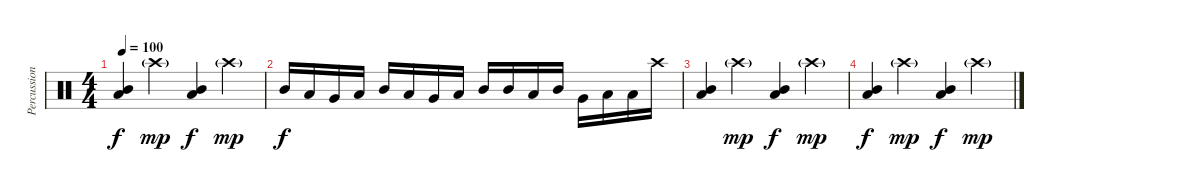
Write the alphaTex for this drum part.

\track ("Percussion" "Percussion") {instrument percussion}
\staff {score}
\articulation defaults
\ts (4 4)
\tempo 100
\clef neutral
\ks c
("Mid Tom (hit)" "Low Tom (hit)").4{dy f} "Crash high (hit)"{g}.4{dy mp} ("Mid Tom (hit)" "Low Tom (hit)").4{dy f} "Crash high (hit)"{g}.4{dy mp} |
"Mid Tom (hit)".16{dy f} "Low Tom (hit)".16 "Very Low Tom (hit)".16 "Low Floor Tom (hit)".16 "Mid Tom (hit)".16 "Low Tom (hit)".16 "Very Low Tom (hit)".16 "Low Floor Tom (hit)".16 "Mid Tom (hit)".16 "Mid Tom (hit)".16 "Low Tom (hit)".16 "Mid Tom (hit)".16 "Very Low Tom (hit)".16 "Low Tom (hit)".16 "Low Tom (hit)".16 "Crash high (hit)".16 |
("Mid Tom (hit)" "Low Tom (hit)").4{volume 0} "Crash high (hit)"{g}.4{dy mp} ("Mid Tom (hit)" "Low Tom (hit)").4{dy f} "Crash high (hit)"{g}.4{dy mp} |
("Mid Tom (hit)" "Low Tom (hit)").4{dy f} "Crash high (hit)"{g}.4{dy mp} ("Mid Tom (hit)" "Low Tom (hit)").4{dy f} "Crash high (hit)"{g}.4{dy mp}
